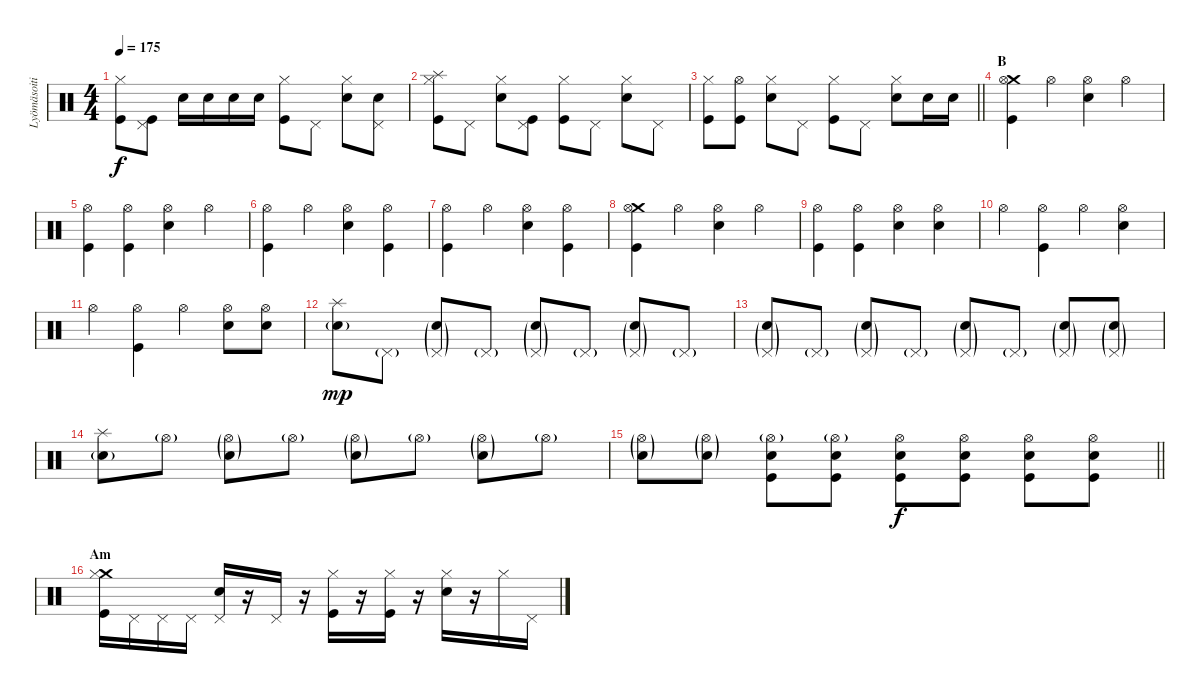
\track ("Lyömäsoitin" "Lyömäsoiti") {instrument percussion}
\staff {score}
\articulation defaults
\ts (4 4)
\tempo 175
\clef neutral
\ks c
("Hi-Hat (closed)" "Kick (hit)").8{dy f} ("Pedal Hi-Hat (hit)" "Kick (hit)").8 "Snare (hit) 2".16 "Snare (hit) 2".16 "Snare (hit) 2".16 "Snare (hit) 2".16 ("Hi-Hat (closed)" "Kick (hit)").8 "Pedal Hi-Hat (hit)".8 ("Hi-Hat (closed)" "Snare (hit) 2").8 ("Pedal Hi-Hat (hit)" "Snare (hit) 2").8 |
("Splash (hit)" "Hi-Hat (closed)" "Kick (hit)").8 "Pedal Hi-Hat (hit)".8 ("Hi-Hat (closed)" "Snare (hit) 2").8 ("Pedal Hi-Hat (hit)" "Kick (hit)").8 ("Hi-Hat (closed)" "Kick (hit)").8 "Pedal Hi-Hat (hit)".8 ("Hi-Hat (closed)" "Snare (hit) 2").8 "Pedal Hi-Hat (hit)".8 |
\barLineRight lightlight
("Hi-Hat (closed)" "Kick (hit)").8 ("Hi-Hat (open)" "Kick (hit)").8 ("Hi-Hat (closed)" "Snare (hit) 2").8 "Pedal Hi-Hat (hit)".8 ("Hi-Hat (closed)" "Kick (hit)").8 "Pedal Hi-Hat (hit)".8 ("Hi-Hat (closed)" "Snare (hit) 2").8 "Snare (hit) 2".16 "Snare (hit) 2".16 |
\section ("" "B")
("Crash medium (hit)" "Hi-Hat (open)" "Kick (hit)").4 "Hi-Hat (open)".4 ("Hi-Hat (open)" "Snare (hit) 2").4 "Hi-Hat (open)".4 |
("Hi-Hat (open)" "Kick (hit)").4 ("Hi-Hat (open)" "Kick (hit)").4 ("Hi-Hat (open)" "Snare (hit) 2").4 "Hi-Hat (open)".4 |
("Hi-Hat (open)" "Kick (hit)").4 "Hi-Hat (open)".4 ("Hi-Hat (open)" "Snare (hit) 2").4 ("Hi-Hat (open)" "Kick (hit)").4 |
("Hi-Hat (open)" "Kick (hit)").4 "Hi-Hat (open)".4 ("Hi-Hat (open)" "Snare (hit) 2").4 ("Hi-Hat (open)" "Kick (hit)").4 |
("Crash medium (hit)" "Hi-Hat (open)" "Kick (hit)").4 "Hi-Hat (open)".4 ("Hi-Hat (open)" "Snare (hit) 2").4 "Hi-Hat (open)".4 |
("Hi-Hat (open)" "Kick (hit)").4 ("Hi-Hat (open)" "Kick (hit)").4 ("Hi-Hat (open)" "Snare (hit) 2").4 ("Hi-Hat (open)" "Snare (hit) 2").4 |
"Hi-Hat (open)".4 ("Hi-Hat (open)" "Kick (hit)").4 "Hi-Hat (open)".4 ("Hi-Hat (open)" "Snare (hit) 2").4 |
"Hi-Hat (open)".4 ("Hi-Hat (open)" "Kick (hit)").4 "Hi-Hat (open)".4 ("Hi-Hat (open)" "Snare (hit) 2").8 ("Hi-Hat (open)" "Snare (hit) 2").8 |
("Splash (hit)" "Snare (hit) 2"{g}).8{dy mp} "Pedal Hi-Hat (hit)"{g}.8 ("Pedal Hi-Hat (hit)"{g} "Snare (hit) 2"{g}).8 "Pedal Hi-Hat (hit)"{g}.8 ("Pedal Hi-Hat (hit)"{g} "Snare (hit) 2"{g}).8 "Pedal Hi-Hat (hit)"{g}.8 ("Pedal Hi-Hat (hit)"{g} "Snare (hit) 2"{g}).8 "Pedal Hi-Hat (hit)"{g}.8 |
("Pedal Hi-Hat (hit)"{g} "Snare (hit) 2"{g}).8 "Pedal Hi-Hat (hit)"{g}.8 ("Pedal Hi-Hat (hit)"{g} "Snare (hit) 2"{g}).8 "Pedal Hi-Hat (hit)"{g}.8 ("Pedal Hi-Hat (hit)"{g} "Snare (hit) 2"{g}).8 "Pedal Hi-Hat (hit)"{g}.8 ("Pedal Hi-Hat (hit)"{g} "Snare (hit) 2"{g}).8 ("Pedal Hi-Hat (hit)"{g} "Snare (hit) 2"{g}).8 |
("Splash (hit)" "Snare (hit) 2"{g}).8 "Hi-Hat (open)"{g}.8 ("Hi-Hat (open)"{g} "Snare (hit) 2"{g}).8 "Hi-Hat (open)"{g}.8 ("Hi-Hat (open)"{g} "Snare (hit) 2"{g}).8 "Hi-Hat (open)"{g}.8 ("Hi-Hat (open)"{g} "Snare (hit) 2"{g}).8 "Hi-Hat (open)"{g}.8 |
\barLineRight lightlight
("Hi-Hat (open)"{g} "Snare (hit) 2"{g}).8 ("Hi-Hat (open)"{g} "Snare (hit) 2"{g}).8 ("Kick (hit)" "Hi-Hat (open)"{g} "Snare (hit) 2").8 ("Kick (hit)" "Hi-Hat (open)"{g} "Snare (hit) 2").8 ("Kick (hit)" "Hi-Hat (open)" "Snare (hit) 2").8{dy f} ("Kick (hit)" "Hi-Hat (open)" "Snare (hit) 2").8 ("Kick (hit)" "Hi-Hat (open)" "Snare (hit) 2").8 ("Kick (hit)" "Hi-Hat (open)" "Snare (hit) 2").8 |
\section ("" "Am")
("Crash medium (hit)" "Hi-Hat (closed)" "Kick (hit)").16 "Pedal Hi-Hat (hit)".16 "Pedal Hi-Hat (hit)".16 "Pedal Hi-Hat (hit)".16 ("Pedal Hi-Hat (hit)" "Snare (hit) 2").16 r.16 "Pedal Hi-Hat (hit)".16 r.16 ("Hi-Hat (closed)" "Kick (hit)").16 r.16 ("Hi-Hat (closed)" "Kick (hit)").16 r.16 ("Hi-Hat (closed)" "Snare (hit) 2").16 r.16 "Hi-Hat (closed)".16 "Pedal Hi-Hat (hit)".16
